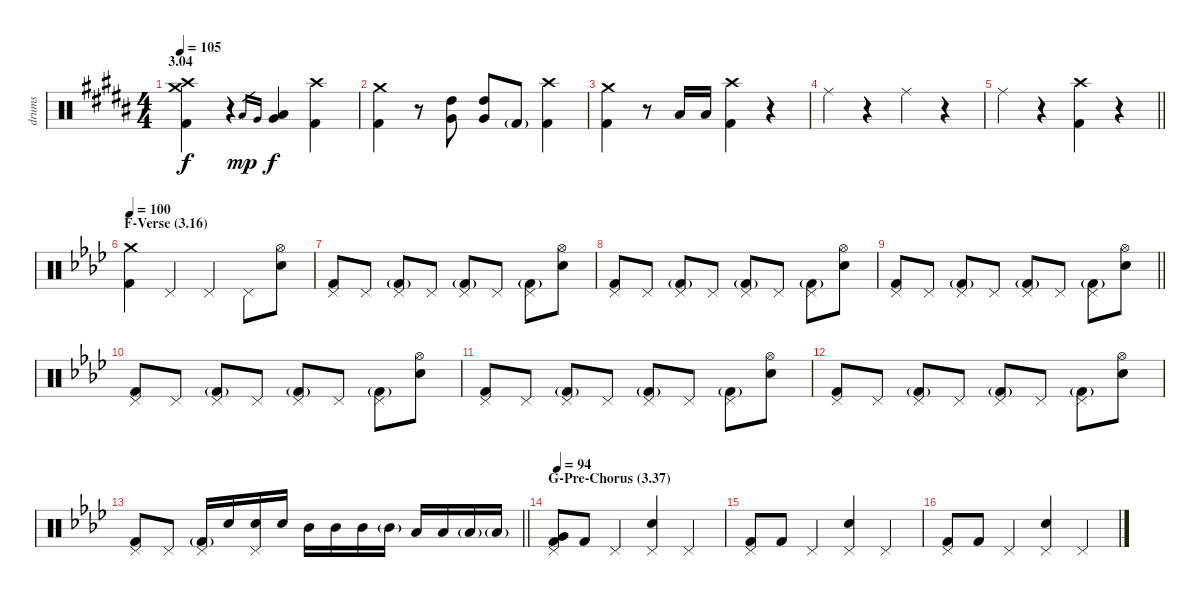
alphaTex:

\track ("drums" "drums") {instrument percussion}
\staff {score}
\articulation defaults
\ts (4 4)
\section ("" "3.04")
\tempo 105
\clef neutral
\ks b
("Crash high (hit)" "Crash medium (hit)" "Kick (hit) 2").4{dy f} r.4 "Low Tom (hit)".16{gr dy mp} "Very Low Tom (hit)".16{gr} ("Low Tom (hit)" "Very Low Tom (hit)").4{dy f} ("Crash high (hit)" "Kick (hit) 2").4 |
("Crash medium (hit)" "Kick (hit) 2").4 r.8 ("High Tom (hit)" "Very Low Tom (hit)").8 ("High Tom (hit)" "Very Low Tom (hit)").8 "Kick (hit) 2"{g}.8 ("Crash high (hit)" "Kick (hit) 2").4 |
("Crash medium (hit)" "Kick (hit) 2").4 r.8 "Low Tom (hit)".16 "Low Tom (hit)".16 ("Crash high (hit)" "Kick (hit) 2").4 r.4 |
"Ride (middle)".4 r.4 "Ride (middle)".4 r.4 |
\barLineRight lightlight "Ride (middle)".4
r.4 ("Crash high (hit)" "Kick (hit) 2").4 r.4 |
\section ("" "F-Verse (3.16)")
\tempo 100
\ks ab
("Crash medium (hit)" "Kick (hit) 2").4 "Pedal Hi-Hat (hit)".4 "Pedal Hi-Hat (hit)".4 "Pedal Hi-Hat (hit)".8 ("Hi-Hat (open)" "Electric Snare (hit)").8 |
("Pedal Hi-Hat (hit)" "Kick (hit) 2").8 "Pedal Hi-Hat (hit)".8 ("Pedal Hi-Hat (hit)" "Kick (hit) 2"{g}).8 "Pedal Hi-Hat (hit)".8 ("Pedal Hi-Hat (hit)" "Kick (hit) 2"{g}).8 "Pedal Hi-Hat (hit)".8 ("Pedal Hi-Hat (hit)" "Kick (hit) 2"{g}).8 ("Hi-Hat (open)" "Electric Snare (hit)").8 |
("Pedal Hi-Hat (hit)" "Kick (hit) 2").8 "Pedal Hi-Hat (hit)".8 ("Pedal Hi-Hat (hit)" "Kick (hit) 2"{g}).8 "Pedal Hi-Hat (hit)".8 ("Pedal Hi-Hat (hit)" "Kick (hit) 2"{g}).8 "Pedal Hi-Hat (hit)".8 ("Pedal Hi-Hat (hit)" "Kick (hit) 2"{g}).8 ("Hi-Hat (open)" "Electric Snare (hit)").8 |
\barLineRight lightlight
("Pedal Hi-Hat (hit)" "Kick (hit) 2").8 "Pedal Hi-Hat (hit)".8 ("Pedal Hi-Hat (hit)" "Kick (hit) 2"{g}).8 "Pedal Hi-Hat (hit)".8 ("Pedal Hi-Hat (hit)" "Kick (hit) 2"{g}).8 "Pedal Hi-Hat (hit)".8 ("Pedal Hi-Hat (hit)" "Kick (hit) 2"{g}).8 ("Hi-Hat (open)" "Electric Snare (hit)").8 |
("Pedal Hi-Hat (hit)" "Kick (hit) 2").8 "Pedal Hi-Hat (hit)".8 ("Pedal Hi-Hat (hit)" "Kick (hit) 2"{g}).8 "Pedal Hi-Hat (hit)".8 ("Pedal Hi-Hat (hit)" "Kick (hit) 2"{g}).8 "Pedal Hi-Hat (hit)".8 ("Pedal Hi-Hat (hit)" "Kick (hit) 2"{g}).8 ("Hi-Hat (open)" "Electric Snare (hit)").8 |
("Pedal Hi-Hat (hit)" "Kick (hit) 2").8 "Pedal Hi-Hat (hit)".8 ("Pedal Hi-Hat (hit)" "Kick (hit) 2"{g}).8 "Pedal Hi-Hat (hit)".8 ("Pedal Hi-Hat (hit)" "Kick (hit) 2"{g}).8 "Pedal Hi-Hat (hit)".8 ("Pedal Hi-Hat (hit)" "Kick (hit) 2"{g}).8 ("Hi-Hat (open)" "Electric Snare (hit)").8 |
("Pedal Hi-Hat (hit)" "Kick (hit) 2").8 "Pedal Hi-Hat (hit)".8 ("Pedal Hi-Hat (hit)" "Kick (hit) 2"{g}).8 "Pedal Hi-Hat (hit)".8 ("Pedal Hi-Hat (hit)" "Kick (hit) 2"{g}).8 "Pedal Hi-Hat (hit)".8 ("Pedal Hi-Hat (hit)" "Kick (hit) 2"{g}).8 ("Hi-Hat (open)" "Electric Snare (hit)").8 |
\barLineRight lightlight
("Pedal Hi-Hat (hit)" "Kick (hit) 2").8 "Pedal Hi-Hat (hit)".8 ("Pedal Hi-Hat (hit)" "Kick (hit) 2"{g}).16 "Electric Snare (hit)".16 ("Pedal Hi-Hat (hit)" "Electric Snare (hit)").16 "Electric Snare (hit)".16 "Mid Tom (hit)".16 "Mid Tom (hit)".16 "Mid Tom (hit)".16 "Mid Tom (hit)"{g}.16 "Low Tom (hit)".16 "Low Tom (hit)".16 "Low Tom (hit)"{g}.16 "Low Tom (hit)"{g}.16 |
\section ("" "G-Pre-Chorus (3.37)")
\tempo 94
("Pedal Hi-Hat (hit)" "Very Low Tom (hit)" "Kick (hit) 2").8 "Kick (hit) 2".8 "Pedal Hi-Hat (hit)".4 ("Pedal Hi-Hat (hit)" "Electric Snare (hit)").4 "Pedal Hi-Hat (hit)".4 |
("Pedal Hi-Hat (hit)" "Kick (hit) 2").8 "Kick (hit) 2".8 "Pedal Hi-Hat (hit)".4 ("Pedal Hi-Hat (hit)" "Electric Snare (hit)").4 "Pedal Hi-Hat (hit)".4 |
("Pedal Hi-Hat (hit)" "Kick (hit) 2").8 "Kick (hit) 2".8 "Pedal Hi-Hat (hit)".4 ("Pedal Hi-Hat (hit)" "Electric Snare (hit)").4 "Pedal Hi-Hat (hit)".4
